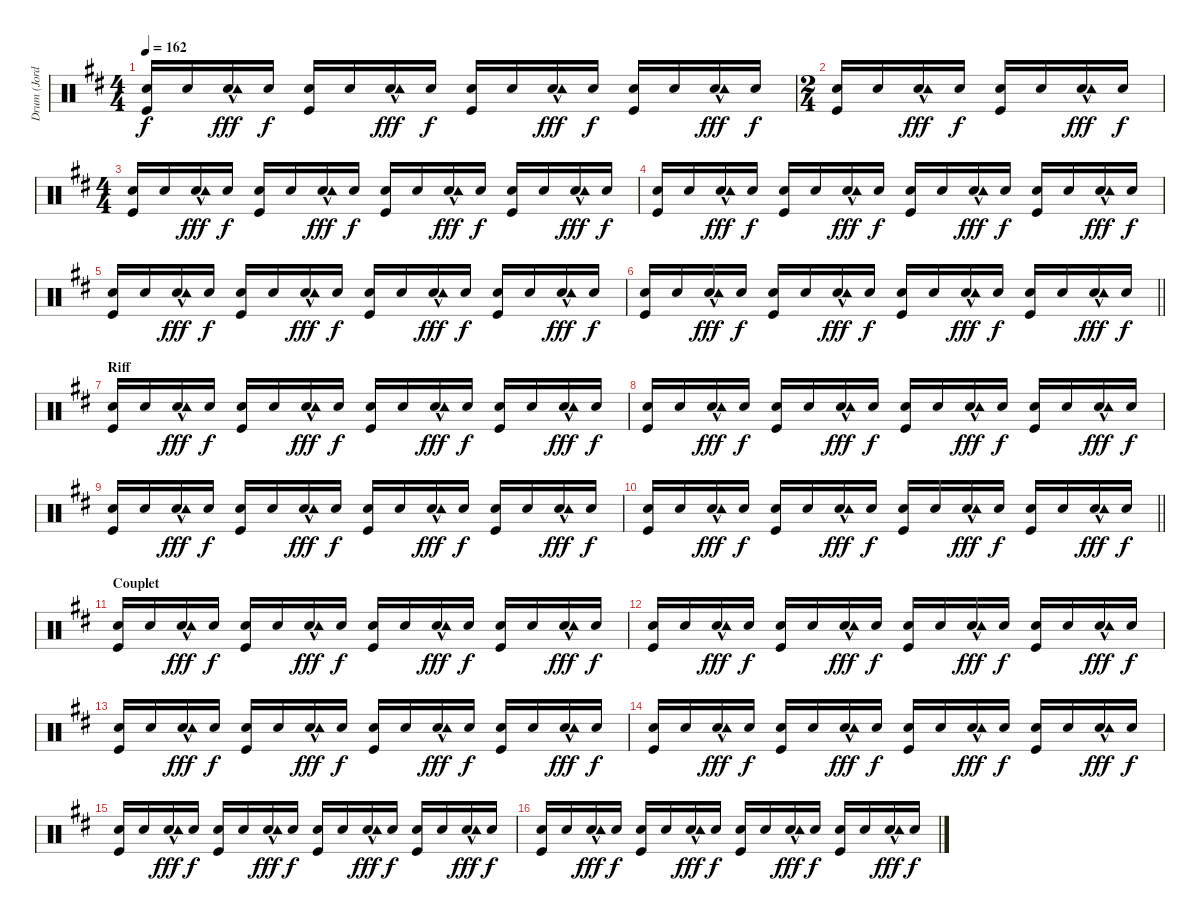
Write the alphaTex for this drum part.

\track ("Drum (Jordan)" "Drum (Jord") {instrument percussion}
\staff {score}
\articulation defaults
\ts (4 4)
\tempo 162
\clef neutral
\ks d
("Snare (hit) 2" "Kick (hit)").16{dy f} "Snare (hit) 2".16 ("Snare (hit) 2"{hac} "Tambourine (hit)").16{dy fff} "Snare (hit) 2".16{dy f} ("Snare (hit) 2" "Kick (hit)").16 "Snare (hit) 2".16 ("Snare (hit) 2"{hac} "Tambourine (hit)").16{dy fff} "Snare (hit) 2".16{dy f} ("Snare (hit) 2" "Kick (hit)").16 "Snare (hit) 2".16 ("Snare (hit) 2"{hac} "Tambourine (hit)").16{dy fff} "Snare (hit) 2".16{dy f} ("Snare (hit) 2" "Kick (hit)").16 "Snare (hit) 2".16 ("Snare (hit) 2"{hac} "Tambourine (hit)").16{dy fff} "Snare (hit) 2".16{dy f} |
\ts (2 4)
("Snare (hit) 2" "Kick (hit)").16 "Snare (hit) 2".16 ("Snare (hit) 2"{hac} "Tambourine (hit)").16{dy fff} "Snare (hit) 2".16{dy f} ("Snare (hit) 2" "Kick (hit)").16 "Snare (hit) 2".16 ("Snare (hit) 2"{hac} "Tambourine (hit)").16{dy fff} "Snare (hit) 2".16{dy f} |
\ts (4 4)
("Snare (hit) 2" "Kick (hit)").16 "Snare (hit) 2".16 ("Snare (hit) 2"{hac} "Tambourine (hit)").16{dy fff} "Snare (hit) 2".16{dy f} ("Snare (hit) 2" "Kick (hit)").16 "Snare (hit) 2".16 ("Snare (hit) 2"{hac} "Tambourine (hit)").16{dy fff} "Snare (hit) 2".16{dy f} ("Snare (hit) 2" "Kick (hit)").16 "Snare (hit) 2".16 ("Snare (hit) 2"{hac} "Tambourine (hit)").16{dy fff} "Snare (hit) 2".16{dy f} ("Snare (hit) 2" "Kick (hit)").16 "Snare (hit) 2".16 ("Snare (hit) 2"{hac} "Tambourine (hit)").16{dy fff} "Snare (hit) 2".16{dy f} |
("Snare (hit) 2" "Kick (hit)").16 "Snare (hit) 2".16 ("Snare (hit) 2"{hac} "Tambourine (hit)").16{dy fff} "Snare (hit) 2".16{dy f} ("Snare (hit) 2" "Kick (hit)").16 "Snare (hit) 2".16 ("Snare (hit) 2"{hac} "Tambourine (hit)").16{dy fff} "Snare (hit) 2".16{dy f} ("Snare (hit) 2" "Kick (hit)").16 "Snare (hit) 2".16 ("Snare (hit) 2"{hac} "Tambourine (hit)").16{dy fff} "Snare (hit) 2".16{dy f} ("Snare (hit) 2" "Kick (hit)").16 "Snare (hit) 2".16 ("Snare (hit) 2"{hac} "Tambourine (hit)").16{dy fff} "Snare (hit) 2".16{dy f} |
("Snare (hit) 2" "Kick (hit)").16 "Snare (hit) 2".16 ("Snare (hit) 2"{hac} "Tambourine (hit)").16{dy fff} "Snare (hit) 2".16{dy f} ("Snare (hit) 2" "Kick (hit)").16 "Snare (hit) 2".16 ("Snare (hit) 2"{hac} "Tambourine (hit)").16{dy fff} "Snare (hit) 2".16{dy f} ("Snare (hit) 2" "Kick (hit)").16 "Snare (hit) 2".16 ("Snare (hit) 2"{hac} "Tambourine (hit)").16{dy fff} "Snare (hit) 2".16{dy f} ("Snare (hit) 2" "Kick (hit)").16 "Snare (hit) 2".16 ("Snare (hit) 2"{hac} "Tambourine (hit)").16{dy fff} "Snare (hit) 2".16{dy f} |
\barLineRight lightlight
("Snare (hit) 2" "Kick (hit)").16 "Snare (hit) 2".16 ("Snare (hit) 2"{hac} "Tambourine (hit)").16{dy fff} "Snare (hit) 2".16{dy f} ("Snare (hit) 2" "Kick (hit)").16 "Snare (hit) 2".16 ("Snare (hit) 2"{hac} "Tambourine (hit)").16{dy fff} "Snare (hit) 2".16{dy f} ("Snare (hit) 2" "Kick (hit)").16 "Snare (hit) 2".16 ("Snare (hit) 2"{hac} "Tambourine (hit)").16{dy fff} "Snare (hit) 2".16{dy f} ("Snare (hit) 2" "Kick (hit)").16 "Snare (hit) 2".16 ("Snare (hit) 2"{hac} "Tambourine (hit)").16{dy fff} "Snare (hit) 2".16{dy f} |
\section ("" "Riff")
("Snare (hit) 2" "Kick (hit)").16 "Snare (hit) 2".16 ("Snare (hit) 2"{hac} "Tambourine (hit)").16{dy fff} "Snare (hit) 2".16{dy f} ("Snare (hit) 2" "Kick (hit)").16 "Snare (hit) 2".16 ("Snare (hit) 2"{hac} "Tambourine (hit)").16{dy fff} "Snare (hit) 2".16{dy f} ("Snare (hit) 2" "Kick (hit)").16 "Snare (hit) 2".16 ("Snare (hit) 2"{hac} "Tambourine (hit)").16{dy fff} "Snare (hit) 2".16{dy f} ("Snare (hit) 2" "Kick (hit)").16 "Snare (hit) 2".16 ("Snare (hit) 2"{hac} "Tambourine (hit)").16{dy fff} "Snare (hit) 2".16{dy f} |
("Snare (hit) 2" "Kick (hit)").16 "Snare (hit) 2".16 ("Snare (hit) 2"{hac} "Tambourine (hit)").16{dy fff} "Snare (hit) 2".16{dy f} ("Snare (hit) 2" "Kick (hit)").16 "Snare (hit) 2".16 ("Snare (hit) 2"{hac} "Tambourine (hit)").16{dy fff} "Snare (hit) 2".16{dy f} ("Snare (hit) 2" "Kick (hit)").16 "Snare (hit) 2".16 ("Snare (hit) 2"{hac} "Tambourine (hit)").16{dy fff} "Snare (hit) 2".16{dy f} ("Snare (hit) 2" "Kick (hit)").16 "Snare (hit) 2".16 ("Snare (hit) 2"{hac} "Tambourine (hit)").16{dy fff} "Snare (hit) 2".16{dy f} |
("Snare (hit) 2" "Kick (hit)").16 "Snare (hit) 2".16 ("Snare (hit) 2"{hac} "Tambourine (hit)").16{dy fff} "Snare (hit) 2".16{dy f} ("Snare (hit) 2" "Kick (hit)").16 "Snare (hit) 2".16 ("Snare (hit) 2"{hac} "Tambourine (hit)").16{dy fff} "Snare (hit) 2".16{dy f} ("Snare (hit) 2" "Kick (hit)").16 "Snare (hit) 2".16 ("Snare (hit) 2"{hac} "Tambourine (hit)").16{dy fff} "Snare (hit) 2".16{dy f} ("Snare (hit) 2" "Kick (hit)").16 "Snare (hit) 2".16 ("Snare (hit) 2"{hac} "Tambourine (hit)").16{dy fff} "Snare (hit) 2".16{dy f} |
\barLineRight lightlight
("Snare (hit) 2" "Kick (hit)").16 "Snare (hit) 2".16 ("Snare (hit) 2"{hac} "Tambourine (hit)").16{dy fff} "Snare (hit) 2".16{dy f} ("Snare (hit) 2" "Kick (hit)").16 "Snare (hit) 2".16 ("Snare (hit) 2"{hac} "Tambourine (hit)").16{dy fff} "Snare (hit) 2".16{dy f} ("Snare (hit) 2" "Kick (hit)").16 "Snare (hit) 2".16 ("Snare (hit) 2"{hac} "Tambourine (hit)").16{dy fff} "Snare (hit) 2".16{dy f} ("Snare (hit) 2" "Kick (hit)").16 "Snare (hit) 2".16 ("Snare (hit) 2"{hac} "Tambourine (hit)").16{dy fff} "Snare (hit) 2".16{dy f} |
\section ("" "Couplet")
("Snare (hit) 2" "Kick (hit)").16 "Snare (hit) 2".16 ("Snare (hit) 2"{hac} "Tambourine (hit)").16{dy fff} "Snare (hit) 2".16{dy f} ("Snare (hit) 2" "Kick (hit)").16 "Snare (hit) 2".16 ("Snare (hit) 2"{hac} "Tambourine (hit)").16{dy fff} "Snare (hit) 2".16{dy f} ("Snare (hit) 2" "Kick (hit)").16 "Snare (hit) 2".16 ("Snare (hit) 2"{hac} "Tambourine (hit)").16{dy fff} "Snare (hit) 2".16{dy f} ("Snare (hit) 2" "Kick (hit)").16 "Snare (hit) 2".16 ("Snare (hit) 2"{hac} "Tambourine (hit)").16{dy fff} "Snare (hit) 2".16{dy f} |
("Snare (hit) 2" "Kick (hit)").16 "Snare (hit) 2".16 ("Snare (hit) 2"{hac} "Tambourine (hit)").16{dy fff} "Snare (hit) 2".16{dy f} ("Snare (hit) 2" "Kick (hit)").16 "Snare (hit) 2".16 ("Snare (hit) 2"{hac} "Tambourine (hit)").16{dy fff} "Snare (hit) 2".16{dy f} ("Snare (hit) 2" "Kick (hit)").16 "Snare (hit) 2".16 ("Snare (hit) 2"{hac} "Tambourine (hit)").16{dy fff} "Snare (hit) 2".16{dy f} ("Snare (hit) 2" "Kick (hit)").16 "Snare (hit) 2".16 ("Snare (hit) 2"{hac} "Tambourine (hit)").16{dy fff} "Snare (hit) 2".16{dy f} |
("Snare (hit) 2" "Kick (hit)").16 "Snare (hit) 2".16 ("Snare (hit) 2"{hac} "Tambourine (hit)").16{dy fff} "Snare (hit) 2".16{dy f} ("Snare (hit) 2" "Kick (hit)").16 "Snare (hit) 2".16 ("Snare (hit) 2"{hac} "Tambourine (hit)").16{dy fff} "Snare (hit) 2".16{dy f} ("Snare (hit) 2" "Kick (hit)").16 "Snare (hit) 2".16 ("Snare (hit) 2"{hac} "Tambourine (hit)").16{dy fff} "Snare (hit) 2".16{dy f} ("Snare (hit) 2" "Kick (hit)").16 "Snare (hit) 2".16 ("Snare (hit) 2"{hac} "Tambourine (hit)").16{dy fff} "Snare (hit) 2".16{dy f} |
("Snare (hit) 2" "Kick (hit)").16 "Snare (hit) 2".16 ("Snare (hit) 2"{hac} "Tambourine (hit)").16{dy fff} "Snare (hit) 2".16{dy f} ("Snare (hit) 2" "Kick (hit)").16 "Snare (hit) 2".16 ("Snare (hit) 2"{hac} "Tambourine (hit)").16{dy fff} "Snare (hit) 2".16{dy f} ("Snare (hit) 2" "Kick (hit)").16 "Snare (hit) 2".16 ("Snare (hit) 2"{hac} "Tambourine (hit)").16{dy fff} "Snare (hit) 2".16{dy f} ("Snare (hit) 2" "Kick (hit)").16 "Snare (hit) 2".16 ("Snare (hit) 2"{hac} "Tambourine (hit)").16{dy fff} "Snare (hit) 2".16{dy f} |
("Snare (hit) 2" "Kick (hit)").16 "Snare (hit) 2".16 ("Snare (hit) 2"{hac} "Tambourine (hit)").16{dy fff} "Snare (hit) 2".16{dy f} ("Snare (hit) 2" "Kick (hit)").16 "Snare (hit) 2".16 ("Snare (hit) 2"{hac} "Tambourine (hit)").16{dy fff} "Snare (hit) 2".16{dy f} ("Snare (hit) 2" "Kick (hit)").16 "Snare (hit) 2".16 ("Snare (hit) 2"{hac} "Tambourine (hit)").16{dy fff} "Snare (hit) 2".16{dy f} ("Snare (hit) 2" "Kick (hit)").16 "Snare (hit) 2".16 ("Snare (hit) 2"{hac} "Tambourine (hit)").16{dy fff} "Snare (hit) 2".16{dy f} |
("Snare (hit) 2" "Kick (hit)").16 "Snare (hit) 2".16 ("Snare (hit) 2"{hac} "Tambourine (hit)").16{dy fff} "Snare (hit) 2".16{dy f} ("Snare (hit) 2" "Kick (hit)").16 "Snare (hit) 2".16 ("Snare (hit) 2"{hac} "Tambourine (hit)").16{dy fff} "Snare (hit) 2".16{dy f} ("Snare (hit) 2" "Kick (hit)").16 "Snare (hit) 2".16 ("Snare (hit) 2"{hac} "Tambourine (hit)").16{dy fff} "Snare (hit) 2".16{dy f} ("Snare (hit) 2" "Kick (hit)").16 "Snare (hit) 2".16 ("Snare (hit) 2"{hac} "Tambourine (hit)").16{dy fff} "Snare (hit) 2".16{dy f}
